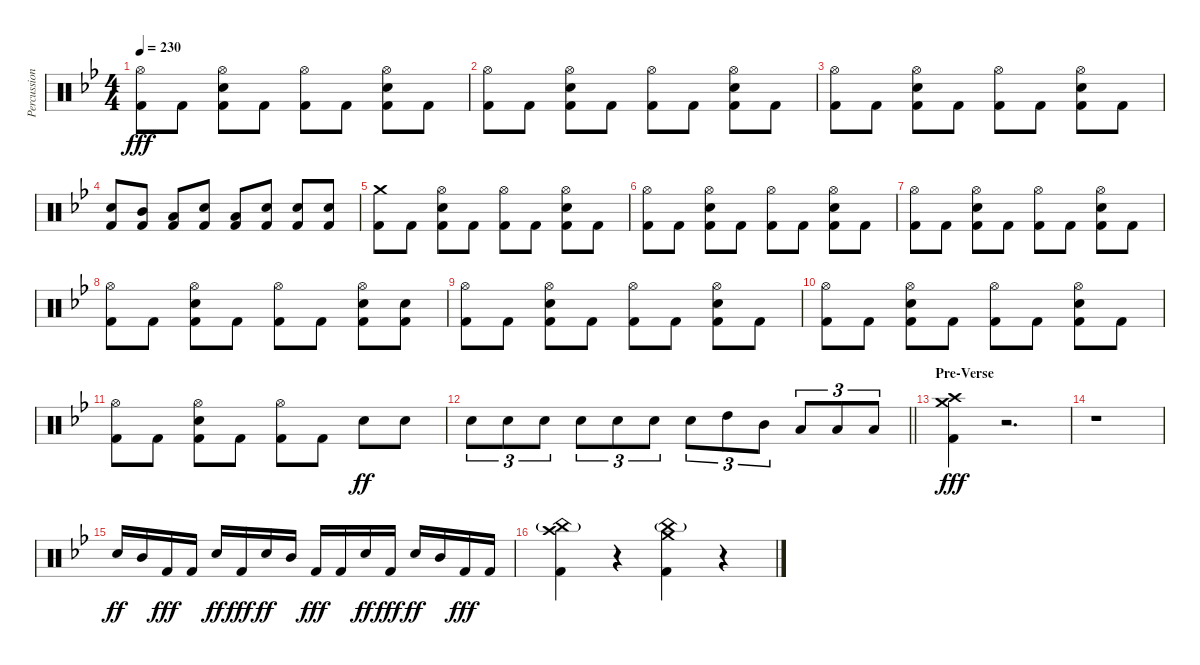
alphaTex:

\track ("Percussion" "Percussion") {instrument percussion}
\staff {score}
\articulation defaults
\ts (4 4)
\tempo 230
\clef neutral
\ks gminor
("Hi-Hat (open)" "Kick (hit) 2").8{dy fff} "Kick (hit) 2".8 ("Hi-Hat (open)" "Electric Snare (hit)" "Kick (hit) 2").8 "Kick (hit) 2".8 ("Hi-Hat (open)" "Kick (hit) 2").8 "Kick (hit) 2".8 ("Hi-Hat (open)" "Electric Snare (hit)" "Kick (hit) 2").8 "Kick (hit) 2".8 |
("Hi-Hat (open)" "Kick (hit) 2").8 "Kick (hit) 2".8 ("Hi-Hat (open)" "Electric Snare (hit)" "Kick (hit) 2").8 "Kick (hit) 2".8 ("Hi-Hat (open)" "Kick (hit) 2").8 "Kick (hit) 2".8 ("Hi-Hat (open)" "Electric Snare (hit)" "Kick (hit) 2").8 "Kick (hit) 2".8 |
("Hi-Hat (open)" "Kick (hit) 2").8 "Kick (hit) 2".8 ("Hi-Hat (open)" "Electric Snare (hit)" "Kick (hit) 2").8 "Kick (hit) 2".8 ("Hi-Hat (open)" "Kick (hit) 2").8 "Kick (hit) 2".8 ("Hi-Hat (open)" "Electric Snare (hit)" "Kick (hit) 2").8 "Kick (hit) 2".8 |
("Electric Snare (hit)" "Kick (hit) 2").8 ("Mid Tom (hit)" "Kick (hit) 2").8 ("Low Tom (hit)" "Kick (hit) 2").8 ("Electric Snare (hit)" "Kick (hit) 2").8 ("Low Tom (hit)" "Kick (hit) 2").8 ("Electric Snare (hit)" "Kick (hit) 2").8 ("Electric Snare (hit)" "Kick (hit) 2").8 ("Electric Snare (hit)" "Kick (hit) 2").8 |
("Crash medium (hit)" "Kick (hit) 2").8 "Kick (hit) 2".8 ("Hi-Hat (open)" "Electric Snare (hit)" "Kick (hit) 2").8 "Kick (hit) 2".8 ("Hi-Hat (open)" "Kick (hit) 2").8 "Kick (hit) 2".8 ("Hi-Hat (open)" "Electric Snare (hit)" "Kick (hit) 2").8 "Kick (hit) 2".8 |
("Hi-Hat (open)" "Kick (hit) 2").8 "Kick (hit) 2".8 ("Hi-Hat (open)" "Electric Snare (hit)" "Kick (hit) 2").8 "Kick (hit) 2".8 ("Hi-Hat (open)" "Kick (hit) 2").8 "Kick (hit) 2".8 ("Hi-Hat (open)" "Electric Snare (hit)" "Kick (hit) 2").8 "Kick (hit) 2".8 |
("Hi-Hat (open)" "Kick (hit) 2").8 "Kick (hit) 2".8 ("Hi-Hat (open)" "Electric Snare (hit)" "Kick (hit) 2").8 "Kick (hit) 2".8 ("Hi-Hat (open)" "Kick (hit) 2").8 "Kick (hit) 2".8 ("Hi-Hat (open)" "Electric Snare (hit)" "Kick (hit) 2").8 "Kick (hit) 2".8 |
("Hi-Hat (open)" "Kick (hit) 2").8 "Kick (hit) 2".8 ("Hi-Hat (open)" "Electric Snare (hit)" "Kick (hit) 2").8 "Kick (hit) 2".8 ("Hi-Hat (open)" "Kick (hit) 2").8 "Kick (hit) 2".8 ("Hi-Hat (open)" "Electric Snare (hit)" "Kick (hit) 2").8 ("Electric Snare (hit)" "Kick (hit) 2").8 |
("Hi-Hat (open)" "Kick (hit) 2").8 "Kick (hit) 2".8 ("Hi-Hat (open)" "Electric Snare (hit)" "Kick (hit) 2").8 "Kick (hit) 2".8 ("Hi-Hat (open)" "Kick (hit) 2").8 "Kick (hit) 2".8 ("Hi-Hat (open)" "Electric Snare (hit)" "Kick (hit) 2").8 "Kick (hit) 2".8 |
("Hi-Hat (open)" "Kick (hit) 2").8 "Kick (hit) 2".8 ("Hi-Hat (open)" "Electric Snare (hit)" "Kick (hit) 2").8 "Kick (hit) 2".8 ("Hi-Hat (open)" "Kick (hit) 2").8 "Kick (hit) 2".8 ("Hi-Hat (open)" "Electric Snare (hit)" "Kick (hit) 2").8 "Kick (hit) 2".8 |
("Hi-Hat (open)" "Kick (hit) 2").8 "Kick (hit) 2".8 ("Hi-Hat (open)" "Electric Snare (hit)" "Kick (hit) 2").8 "Kick (hit) 2".8 ("Hi-Hat (open)" "Kick (hit) 2").8 "Kick (hit) 2".8 "Electric Snare (hit)".8{dy ff} "Electric Snare (hit)".8 |
\barLineRight lightlight "Electric Snare (hit)".8{tu (3 2)} "Electric Snare (hit)".8{tu (3 2)} "Electric Snare (hit)".8{tu (3 2)} "Electric Snare (hit)".8{tu (3 2)} "Electric Snare (hit)".8{tu (3 2)} "Electric Snare (hit)".8{tu (3 2)} "Electric Snare (hit)".8{tu (3 2)} "High Tom (hit)".8{tu (3 2)} "Mid Tom (hit)".8{tu (3 2)} "Low Tom (hit)".8{tu (3 2)} "Low Tom (hit)".8{tu (3 2)} "Low Tom (hit)".8{tu (3 2)}
|
\section ("" "Pre-Verse")
("Crash high (hit)" "Crash medium (hit)" "Kick (hit) 2").4{dy fff} r.2{d} |
r.1 |
"Electric Snare (hit)".16{dy ff} "Mid Tom (hit)".16 "Kick (hit) 2".16{dy fff} "Kick (hit) 2".16 "Electric Snare (hit)".16{dy ff} "Kick (hit) 2".16{dy fff} "Electric Snare (hit)".16{dy ff} "Mid Tom (hit)".16 "Kick (hit) 2".16{dy fff} "Kick (hit) 2".16 "Electric Snare (hit)".16{dy ff} "Kick (hit) 2".16{dy fff} "Electric Snare (hit)".16{dy ff} "Mid Tom (hit)".16 "Kick (hit) 2".16{dy fff} "Kick (hit) 2".16 |
("Crash high (hit)" "China (hit)"{g} "Kick (hit) 2").4 r.4 ("Crash medium (hit)" "China (hit)"{g} "Kick (hit) 2").4 r.4
